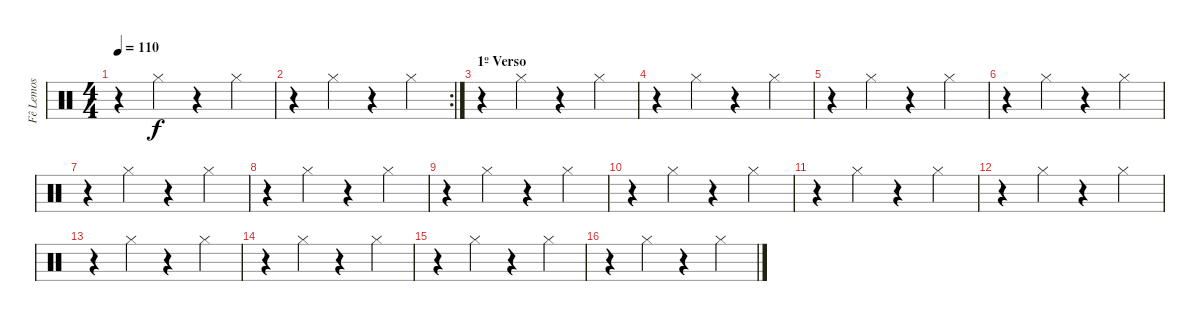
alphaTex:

\track ("Fê Lemos" "Fê Lemos") {instrument percussion}
\staff {score}
\articulation defaults
\ts (4 4)
\tempo 110
\clef neutral
\ks c
r.4{dy f} "Hi-Hat (closed)".4 r.4 "Hi-Hat (closed)".4 |
\rc 2
r.4 "Hi-Hat (closed)".4 r.4 "Hi-Hat (closed)".4 |
\section ("" "1º Verso")
r.4 "Hi-Hat (closed)".4 r.4 "Hi-Hat (closed)".4 |
r.4 "Hi-Hat (closed)".4 r.4 "Hi-Hat (closed)".4 |
r.4 "Hi-Hat (closed)".4 r.4 "Hi-Hat (closed)".4 |
r.4 "Hi-Hat (closed)".4 r.4 "Hi-Hat (closed)".4 |
r.4 "Hi-Hat (closed)".4 r.4 "Hi-Hat (closed)".4 |
r.4 "Hi-Hat (closed)".4 r.4 "Hi-Hat (closed)".4 |
r.4 "Hi-Hat (closed)".4 r.4 "Hi-Hat (closed)".4 |
r.4 "Hi-Hat (closed)".4 r.4 "Hi-Hat (closed)".4 |
r.4 "Hi-Hat (closed)".4 r.4 "Hi-Hat (closed)".4 |
r.4 "Hi-Hat (closed)".4 r.4 "Hi-Hat (closed)".4 |
r.4 "Hi-Hat (closed)".4 r.4 "Hi-Hat (closed)".4 |
r.4 "Hi-Hat (closed)".4 r.4 "Hi-Hat (closed)".4 |
r.4 "Hi-Hat (closed)".4 r.4 "Hi-Hat (closed)".4 |
r.4 "Hi-Hat (closed)".4 r.4 "Hi-Hat (closed)".4
